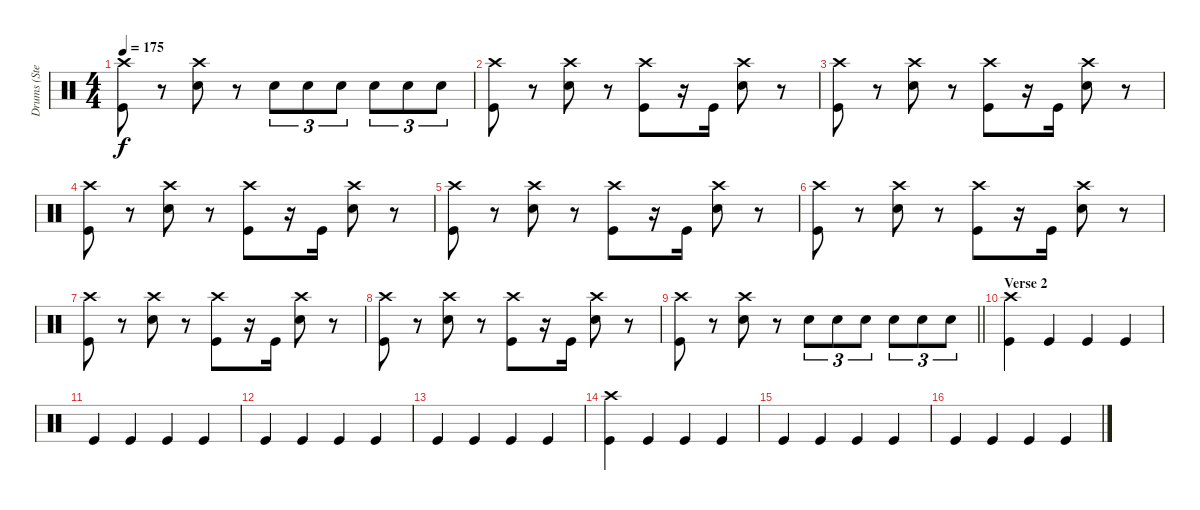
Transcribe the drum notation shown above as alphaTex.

\track ("Drums (Stevo)" "Drums (Ste") {instrument percussion}
\staff {score}
\articulation defaults
\ts (4 4)
\tempo 175
\clef neutral
\ks c
("Crash high (hit)" "Kick (hit)").8{dy f} r.8 ("Crash high (hit)" "Snare (hit) 2").8 r.8 "Snare (hit) 2".8{tu (3 2)} "Snare (hit) 2".8{tu (3 2)} "Snare (hit) 2".8{tu (3 2)} "Snare (hit) 2".8{tu (3 2)} "Snare (hit) 2".8{tu (3 2)} "Snare (hit) 2".8{tu (3 2)} |
("Crash high (hit)" "Kick (hit)").8 r.8 ("Crash high (hit)" "Snare (hit) 2").8 r.8 ("Crash high (hit)" "Kick (hit)").8 r.16 "Kick (hit)".16 ("Crash high (hit)" "Snare (hit) 2").8 r.8 |
("Crash high (hit)" "Kick (hit)").8 r.8 ("Crash high (hit)" "Snare (hit) 2").8 r.8 ("Crash high (hit)" "Kick (hit)").8 r.16 "Kick (hit)".16 ("Crash high (hit)" "Snare (hit) 2").8 r.8 |
("Crash high (hit)" "Kick (hit)").8 r.8 ("Crash high (hit)" "Snare (hit) 2").8 r.8 ("Crash high (hit)" "Kick (hit)").8 r.16 "Kick (hit)".16 ("Crash high (hit)" "Snare (hit) 2").8 r.8 |
("Crash high (hit)" "Kick (hit)").8 r.8 ("Crash high (hit)" "Snare (hit) 2").8 r.8 ("Crash high (hit)" "Kick (hit)").8 r.16 "Kick (hit)".16 ("Crash high (hit)" "Snare (hit) 2").8 r.8 |
("Crash high (hit)" "Kick (hit)").8 r.8 ("Crash high (hit)" "Snare (hit) 2").8 r.8 ("Crash high (hit)" "Kick (hit)").8 r.16 "Kick (hit)".16 ("Crash high (hit)" "Snare (hit) 2").8 r.8 |
("Crash high (hit)" "Kick (hit)").8 r.8 ("Crash high (hit)" "Snare (hit) 2").8 r.8 ("Crash high (hit)" "Kick (hit)").8 r.16 "Kick (hit)".16 ("Crash high (hit)" "Snare (hit) 2").8 r.8 |
("Crash high (hit)" "Kick (hit)").8 r.8 ("Crash high (hit)" "Snare (hit) 2").8 r.8 ("Crash high (hit)" "Kick (hit)").8 r.16 "Kick (hit)".16 ("Crash high (hit)" "Snare (hit) 2").8 r.8 |
\barLineRight lightlight
("Crash high (hit)" "Kick (hit)").8 r.8 ("Crash high (hit)" "Snare (hit) 2").8 r.8 "Snare (hit) 2".8{tu (3 2)} "Snare (hit) 2".8{tu (3 2)} "Snare (hit) 2".8{tu (3 2)} "Snare (hit) 2".8{tu (3 2)} "Snare (hit) 2".8{tu (3 2)} "Snare (hit) 2".8{tu (3 2)} |
\section ("" "Verse 2")
("Crash high (hit)" "Kick (hit)").4 "Kick (hit)".4 "Kick (hit)".4 "Kick (hit)".4 |
"Kick (hit)".4 "Kick (hit)".4 "Kick (hit)".4 "Kick (hit)".4 |
"Kick (hit)".4 "Kick (hit)".4 "Kick (hit)".4 "Kick (hit)".4 |
"Kick (hit)".4 "Kick (hit)".4 "Kick (hit)".4 "Kick (hit)".4 |
("Crash high (hit)" "Kick (hit)").4 "Kick (hit)".4 "Kick (hit)".4 "Kick (hit)".4 |
"Kick (hit)".4 "Kick (hit)".4 "Kick (hit)".4 "Kick (hit)".4 |
"Kick (hit)".4 "Kick (hit)".4 "Kick (hit)".4 "Kick (hit)".4
